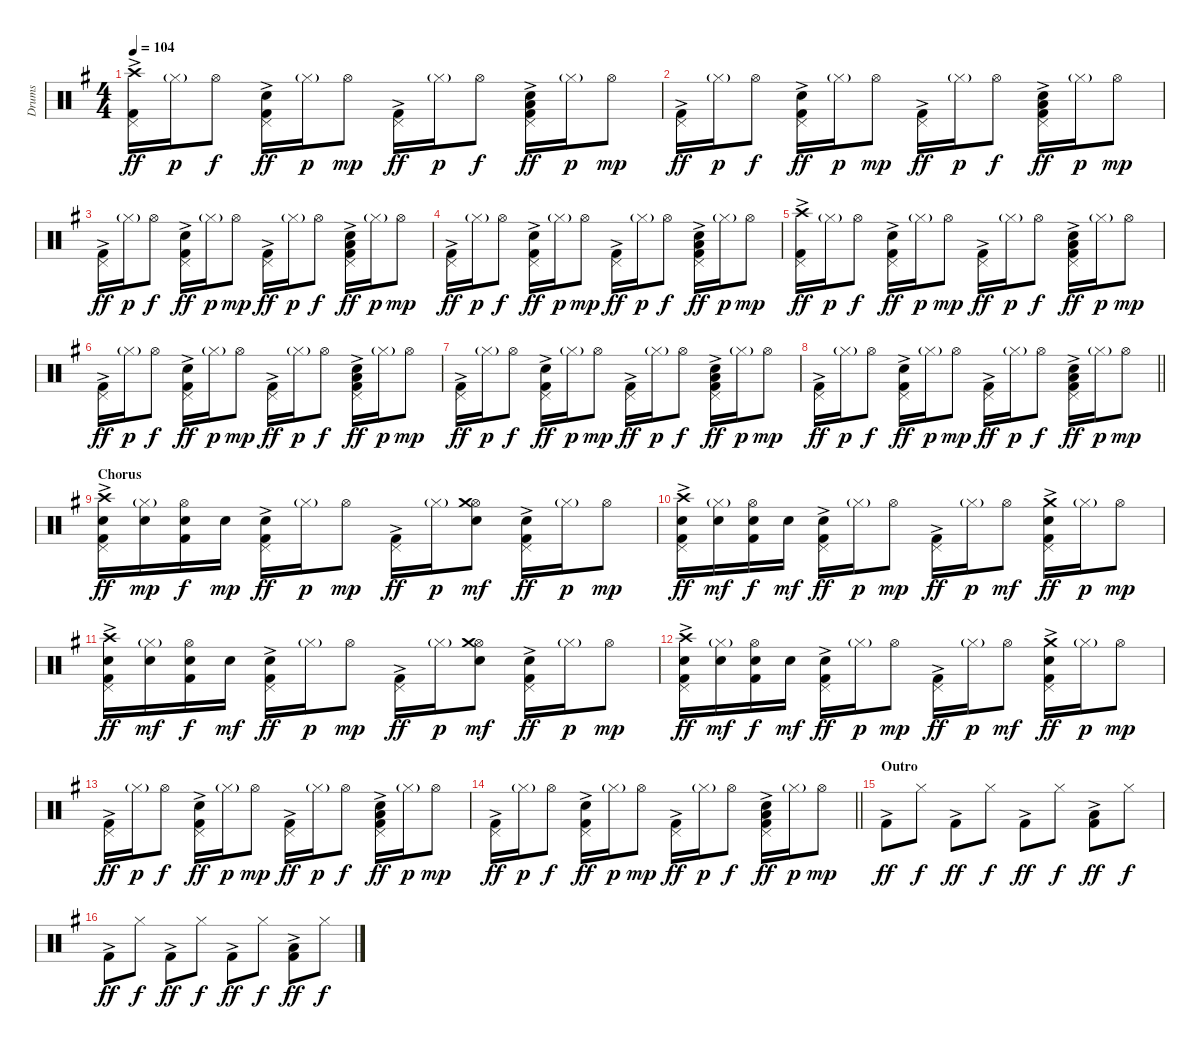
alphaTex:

\track ("Drums" "Drums") {instrument percussion}
\staff {score}
\articulation defaults
\ts (4 4)
\tempo 104
\clef neutral
\ks g
("Pedal Hi-Hat (hit)" "Crash high (hit)" "Kick (hit) 2"{ac}).16{dy ff} "Hi-Hat (closed)"{g}.16{dy p} "Hi-Hat (open)".8{dy f} ("Pedal Hi-Hat (hit)" "Snare (hit) 2"{ac} "Kick (hit) 2"{ac}).16{dy ff} "Hi-Hat (closed)"{g}.16{dy p} "Hi-Hat (open)".8{dy mp} ("Pedal Hi-Hat (hit)" "Kick (hit) 2"{ac}).16{dy ff} "Hi-Hat (closed)"{g}.16{dy p} "Hi-Hat (open)".8{dy f} ("Pedal Hi-Hat (hit)" "Snare (hit) 2"{ac} "Low Tom (hit)" "Kick (hit) 2"{ac}).16{dy ff} "Hi-Hat (closed)"{g}.16{dy p} "Hi-Hat (open)".8{dy mp} |
("Pedal Hi-Hat (hit)" "Kick (hit) 2"{ac}).16{dy ff} "Hi-Hat (closed)"{g}.16{dy p} "Hi-Hat (open)".8{dy f} ("Pedal Hi-Hat (hit)" "Snare (hit) 2"{ac} "Kick (hit) 2"{ac}).16{dy ff} "Hi-Hat (closed)"{g}.16{dy p} "Hi-Hat (open)".8{dy mp} ("Pedal Hi-Hat (hit)" "Kick (hit) 2"{ac}).16{dy ff} "Hi-Hat (closed)"{g}.16{dy p} "Hi-Hat (open)".8{dy f} ("Pedal Hi-Hat (hit)" "Snare (hit) 2"{ac} "Low Tom (hit)" "Kick (hit) 2"{ac}).16{dy ff} "Hi-Hat (closed)"{g}.16{dy p} "Hi-Hat (open)".8{dy mp} |
("Pedal Hi-Hat (hit)" "Kick (hit) 2"{ac}).16{dy ff} "Hi-Hat (closed)"{g}.16{dy p} "Hi-Hat (open)".8{dy f} ("Pedal Hi-Hat (hit)" "Snare (hit) 2"{ac} "Kick (hit) 2"{ac}).16{dy ff} "Hi-Hat (closed)"{g}.16{dy p} "Hi-Hat (open)".8{dy mp} ("Pedal Hi-Hat (hit)" "Kick (hit) 2"{ac}).16{dy ff} "Hi-Hat (closed)"{g}.16{dy p} "Hi-Hat (open)".8{dy f} ("Pedal Hi-Hat (hit)" "Snare (hit) 2"{ac} "Low Tom (hit)" "Kick (hit) 2"{ac}).16{dy ff} "Hi-Hat (closed)"{g}.16{dy p} "Hi-Hat (open)".8{dy mp} |
("Pedal Hi-Hat (hit)" "Kick (hit) 2"{ac}).16{dy ff} "Hi-Hat (closed)"{g}.16{dy p} "Hi-Hat (open)".8{dy f} ("Pedal Hi-Hat (hit)" "Snare (hit) 2"{ac} "Kick (hit) 2"{ac}).16{dy ff} "Hi-Hat (closed)"{g}.16{dy p} "Hi-Hat (open)".8{dy mp} ("Pedal Hi-Hat (hit)" "Kick (hit) 2"{ac}).16{dy ff} "Hi-Hat (closed)"{g}.16{dy p} "Hi-Hat (open)".8{dy f} ("Pedal Hi-Hat (hit)" "Snare (hit) 2"{ac} "Low Tom (hit)" "Kick (hit) 2"{ac}).16{dy ff} "Hi-Hat (closed)"{g}.16{dy p} "Hi-Hat (open)".8{dy mp} |
("Pedal Hi-Hat (hit)" "Crash high (hit)" "Kick (hit) 2"{ac}).16{dy ff} "Hi-Hat (closed)"{g}.16{dy p} "Hi-Hat (open)".8{dy f} ("Pedal Hi-Hat (hit)" "Snare (hit) 2"{ac} "Kick (hit) 2"{ac}).16{dy ff} "Hi-Hat (closed)"{g}.16{dy p} "Hi-Hat (open)".8{dy mp} ("Pedal Hi-Hat (hit)" "Kick (hit) 2"{ac}).16{dy ff} "Hi-Hat (closed)"{g}.16{dy p} "Hi-Hat (open)".8{dy f} ("Pedal Hi-Hat (hit)" "Snare (hit) 2"{ac} "Low Tom (hit)" "Kick (hit) 2"{ac}).16{dy ff} "Hi-Hat (closed)"{g}.16{dy p} "Hi-Hat (open)".8{dy mp} |
("Pedal Hi-Hat (hit)" "Kick (hit) 2"{ac}).16{dy ff} "Hi-Hat (closed)"{g}.16{dy p} "Hi-Hat (open)".8{dy f} ("Pedal Hi-Hat (hit)" "Snare (hit) 2"{ac} "Kick (hit) 2"{ac}).16{dy ff} "Hi-Hat (closed)"{g}.16{dy p} "Hi-Hat (open)".8{dy mp} ("Pedal Hi-Hat (hit)" "Kick (hit) 2"{ac}).16{dy ff} "Hi-Hat (closed)"{g}.16{dy p} "Hi-Hat (open)".8{dy f} ("Pedal Hi-Hat (hit)" "Snare (hit) 2"{ac} "Low Tom (hit)" "Kick (hit) 2"{ac}).16{dy ff} "Hi-Hat (closed)"{g}.16{dy p} "Hi-Hat (open)".8{dy mp} |
("Pedal Hi-Hat (hit)" "Kick (hit) 2"{ac}).16{dy ff} "Hi-Hat (closed)"{g}.16{dy p} "Hi-Hat (open)".8{dy f} ("Pedal Hi-Hat (hit)" "Snare (hit) 2"{ac} "Kick (hit) 2"{ac}).16{dy ff} "Hi-Hat (closed)"{g}.16{dy p} "Hi-Hat (open)".8{dy mp} ("Pedal Hi-Hat (hit)" "Kick (hit) 2"{ac}).16{dy ff} "Hi-Hat (closed)"{g}.16{dy p} "Hi-Hat (open)".8{dy f} ("Pedal Hi-Hat (hit)" "Snare (hit) 2"{ac} "Low Tom (hit)" "Kick (hit) 2"{ac}).16{dy ff} "Hi-Hat (closed)"{g}.16{dy p} "Hi-Hat (open)".8{dy mp} |
\barLineRight lightlight
("Pedal Hi-Hat (hit)" "Kick (hit) 2"{ac}).16{dy ff} "Hi-Hat (closed)"{g}.16{dy p} "Hi-Hat (open)".8{dy f} ("Pedal Hi-Hat (hit)" "Snare (hit) 2"{ac} "Kick (hit) 2"{ac}).16{dy ff} "Hi-Hat (closed)"{g}.16{dy p} "Hi-Hat (open)".8{dy mp} ("Pedal Hi-Hat (hit)" "Kick (hit) 2"{ac}).16{dy ff} "Hi-Hat (closed)"{g}.16{dy p} "Hi-Hat (open)".8{dy f} ("Pedal Hi-Hat (hit)" "Snare (hit) 2"{ac} "Low Tom (hit)" "Kick (hit) 2"{ac}).16{dy ff} "Hi-Hat (closed)"{g}.16{dy p} "Hi-Hat (open)".8{dy mp} |
\section ("" "Chorus")
("Pedal Hi-Hat (hit)" "Crash high (hit)" "Snare (hit) 2" "Kick (hit) 2"{ac}).16{dy ff} ("Hi-Hat (closed)"{g} "Snare (hit) 2").16{dy mp} ("Hi-Hat (open)" "Snare (hit) 2" "Kick (hit) 2").16{dy f} "Snare (hit) 2".16{dy mp} ("Pedal Hi-Hat (hit)" "Snare (hit) 2"{ac} "Kick (hit) 2"{ac}).16{dy ff} "Hi-Hat (closed)"{g}.16{dy p} "Hi-Hat (open)".8{dy mp} ("Pedal Hi-Hat (hit)" "Kick (hit) 2"{ac}).16{dy ff} "Hi-Hat (closed)"{g}.16{dy p} ("Hi-Hat (open)" "Crash medium (hit)" "Snare (hit) 2").8{dy mf} ("Pedal Hi-Hat (hit)" "Snare (hit) 2"{ac} "Kick (hit) 2"{ac}).16{dy ff} "Hi-Hat (closed)"{g}.16{dy p} "Hi-Hat (open)".8{dy mp} |
("Pedal Hi-Hat (hit)" "Crash high (hit)" "Snare (hit) 2" "Kick (hit) 2"{ac}).16{dy ff} ("Hi-Hat (closed)"{g} "Snare (hit) 2").16{dy mf} ("Hi-Hat (open)" "Snare (hit) 2" "Kick (hit) 2").16{dy f} "Snare (hit) 2".16{dy mf} ("Pedal Hi-Hat (hit)" "Snare (hit) 2"{ac} "Kick (hit) 2"{ac}).16{dy ff} "Hi-Hat (closed)"{g}.16{dy p} "Hi-Hat (open)".8{dy mp} ("Pedal Hi-Hat (hit)" "Kick (hit) 2"{ac}).16{dy ff} "Hi-Hat (closed)"{g}.16{dy p} "Hi-Hat (open)".8{dy mf} ("Pedal Hi-Hat (hit)" "Crash medium (hit)" "Snare (hit) 2"{ac} "Kick (hit) 2"{ac}).16{dy ff} "Hi-Hat (closed)"{g}.16{dy p} "Hi-Hat (open)".8{dy mp} |
("Pedal Hi-Hat (hit)" "Crash high (hit)" "Snare (hit) 2" "Kick (hit) 2"{ac}).16{dy ff} ("Hi-Hat (closed)"{g} "Snare (hit) 2").16{dy mf} ("Hi-Hat (open)" "Snare (hit) 2" "Kick (hit) 2").16{dy f} "Snare (hit) 2".16{dy mf} ("Pedal Hi-Hat (hit)" "Snare (hit) 2"{ac} "Kick (hit) 2"{ac}).16{dy ff} "Hi-Hat (closed)"{g}.16{dy p} "Hi-Hat (open)".8{dy mp} ("Pedal Hi-Hat (hit)" "Kick (hit) 2"{ac}).16{dy ff} "Hi-Hat (closed)"{g}.16{dy p} ("Hi-Hat (open)" "Crash medium (hit)" "Snare (hit) 2").8{dy mf} ("Pedal Hi-Hat (hit)" "Snare (hit) 2"{ac} "Kick (hit) 2"{ac}).16{dy ff} "Hi-Hat (closed)"{g}.16{dy p} "Hi-Hat (open)".8{dy mp} |
("Pedal Hi-Hat (hit)" "Crash high (hit)" "Snare (hit) 2" "Kick (hit) 2"{ac}).16{dy ff} ("Hi-Hat (closed)"{g} "Snare (hit) 2").16{dy mf} ("Hi-Hat (open)" "Snare (hit) 2" "Kick (hit) 2").16{dy f} "Snare (hit) 2".16{dy mf} ("Pedal Hi-Hat (hit)" "Snare (hit) 2"{ac} "Kick (hit) 2"{ac}).16{dy ff} "Hi-Hat (closed)"{g}.16{dy p} "Hi-Hat (open)".8{dy mp} ("Pedal Hi-Hat (hit)" "Kick (hit) 2"{ac}).16{dy ff} "Hi-Hat (closed)"{g}.16{dy p} "Hi-Hat (open)".8{dy mf} ("Pedal Hi-Hat (hit)" "Crash medium (hit)" "Snare (hit) 2"{ac} "Kick (hit) 2"{ac}).16{dy ff} "Hi-Hat (closed)"{g}.16{dy p} "Hi-Hat (open)".8{dy mp} |
("Pedal Hi-Hat (hit)" "Kick (hit) 2"{ac}).16{dy ff} "Hi-Hat (closed)"{g}.16{dy p} "Hi-Hat (open)".8{dy f} ("Pedal Hi-Hat (hit)" "Snare (hit) 2"{ac} "Kick (hit) 2"{ac}).16{dy ff} "Hi-Hat (closed)"{g}.16{dy p} "Hi-Hat (open)".8{dy mp} ("Pedal Hi-Hat (hit)" "Kick (hit) 2"{ac}).16{dy ff} "Hi-Hat (closed)"{g}.16{dy p} "Hi-Hat (open)".8{dy f} ("Pedal Hi-Hat (hit)" "Snare (hit) 2"{ac} "Low Tom (hit)" "Kick (hit) 2"{ac}).16{dy ff} "Hi-Hat (closed)"{g}.16{dy p} "Hi-Hat (open)".8{dy mp} |
\barLineRight lightlight
("Pedal Hi-Hat (hit)" "Kick (hit) 2"{ac}).16{dy ff} "Hi-Hat (closed)"{g}.16{dy p} "Hi-Hat (open)".8{dy f} ("Pedal Hi-Hat (hit)" "Snare (hit) 2"{ac} "Kick (hit) 2"{ac}).16{dy ff} "Hi-Hat (closed)"{g}.16{dy p} "Hi-Hat (open)".8{dy mp} ("Pedal Hi-Hat (hit)" "Kick (hit) 2"{ac}).16{dy ff} "Hi-Hat (closed)"{g}.16{dy p} "Hi-Hat (open)".8{dy f} ("Pedal Hi-Hat (hit)" "Snare (hit) 2"{ac} "Low Tom (hit)" "Kick (hit) 2"{ac}).16{dy ff} "Hi-Hat (closed)"{g}.16{dy p} "Hi-Hat (open)".8{dy mp} |
\section ("" "Outro")
"Kick (hit) 2"{ac}.8{dy ff} "Hi-Hat (closed)".8{dy f} "Kick (hit) 2"{ac}.8{dy ff} "Hi-Hat (closed)".8{dy f} "Kick (hit) 2"{ac}.8{dy ff} "Hi-Hat (closed)".8{dy f} ("Low Tom (hit)" "Kick (hit) 2"{ac}).8{dy ff} "Hi-Hat (closed)".8{dy f} |
"Kick (hit) 2"{ac}.8{dy ff} "Hi-Hat (closed)".8{dy f} "Kick (hit) 2"{ac}.8{dy ff} "Hi-Hat (closed)".8{dy f} "Kick (hit) 2"{ac}.8{dy ff} "Hi-Hat (closed)".8{dy f} ("Low Tom (hit)" "Kick (hit) 2"{ac}).8{dy ff} "Hi-Hat (closed)".8{dy f}
